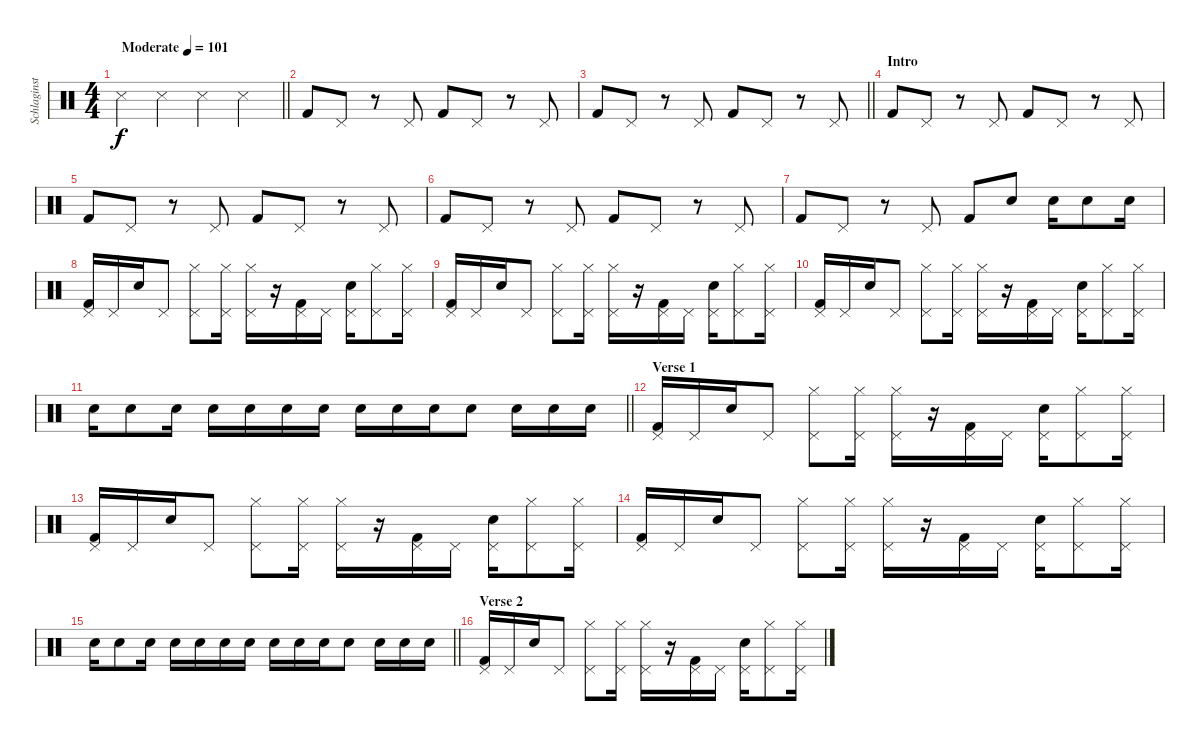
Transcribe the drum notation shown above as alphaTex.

\track ("Schlaginstrumente - Auswahl" "Schlaginst") {instrument percussion}
\staff {score}
\articulation defaults
\ts (4 4)
\tempo (101 "Moderate")
\clef neutral
\barLineRight lightlight
\ks c "Snare (side stick) 3".4{dy f} "Snare (side stick) 3".4 "Snare (side stick) 3".4 "Snare (side stick) 3".4
|
"Kick (hit) 2".8 "Pedal Hi-Hat (hit)".8 r.8 "Pedal Hi-Hat (hit)".8 "Kick (hit) 2".8 "Pedal Hi-Hat (hit)".8 r.8 "Pedal Hi-Hat (hit)".8 |
\barLineRight lightlight "Kick (hit) 2".8 "Pedal Hi-Hat (hit)".8
r.8 "Pedal Hi-Hat (hit)".8 "Kick (hit) 2".8 "Pedal Hi-Hat (hit)".8 r.8 "Pedal Hi-Hat (hit)".8 |
\section ("" "Intro")
"Kick (hit) 2".8 "Pedal Hi-Hat (hit)".8 r.8 "Pedal Hi-Hat (hit)".8 "Kick (hit) 2".8 "Pedal Hi-Hat (hit)".8 r.8 "Pedal Hi-Hat (hit)".8 |
"Kick (hit) 2".8 "Pedal Hi-Hat (hit)".8 r.8 "Pedal Hi-Hat (hit)".8 "Kick (hit) 2".8 "Pedal Hi-Hat (hit)".8 r.8 "Pedal Hi-Hat (hit)".8 |
"Kick (hit) 2".8 "Pedal Hi-Hat (hit)".8 r.8 "Pedal Hi-Hat (hit)".8 "Kick (hit) 2".8 "Pedal Hi-Hat (hit)".8 r.8 "Pedal Hi-Hat (hit)".8 |
"Kick (hit) 2".8 "Pedal Hi-Hat (hit)".8 r.8 "Pedal Hi-Hat (hit)".8 "Kick (hit) 2".8 "Electric Snare (hit)".8 "Electric Snare (hit)".16 "Electric Snare (hit)".8 "Electric Snare (hit)".16 |
("Kick (hit) 2" "Pedal Hi-Hat (hit)").16 "Pedal Hi-Hat (hit)".16 "Electric Snare (hit)".16 "Pedal Hi-Hat (hit)".8 ("Hi-Hat (closed)" "Pedal Hi-Hat (hit)").8 ("Hi-Hat (closed)" "Pedal Hi-Hat (hit)").16 ("Hi-Hat (closed)" "Pedal Hi-Hat (hit)").16 r.16 ("Kick (hit) 2" "Pedal Hi-Hat (hit)").16 "Pedal Hi-Hat (hit)".16 ("Snare (hit) 2" "Pedal Hi-Hat (hit)").16 ("Hi-Hat (closed)" "Pedal Hi-Hat (hit)").8 ("Hi-Hat (closed)" "Pedal Hi-Hat (hit)").16 |
("Kick (hit) 2" "Pedal Hi-Hat (hit)").16 "Pedal Hi-Hat (hit)".16 "Electric Snare (hit)".16 "Pedal Hi-Hat (hit)".8 ("Hi-Hat (closed)" "Pedal Hi-Hat (hit)").8 ("Hi-Hat (closed)" "Pedal Hi-Hat (hit)").16 ("Hi-Hat (closed)" "Pedal Hi-Hat (hit)").16 r.16 ("Kick (hit) 2" "Pedal Hi-Hat (hit)").16 "Pedal Hi-Hat (hit)".16 ("Snare (hit) 2" "Pedal Hi-Hat (hit)").16 ("Hi-Hat (closed)" "Pedal Hi-Hat (hit)").8 ("Hi-Hat (closed)" "Pedal Hi-Hat (hit)").16 |
("Kick (hit) 2" "Pedal Hi-Hat (hit)").16 "Pedal Hi-Hat (hit)".16 "Electric Snare (hit)".16 "Pedal Hi-Hat (hit)".8 ("Hi-Hat (closed)" "Pedal Hi-Hat (hit)").8 ("Hi-Hat (closed)" "Pedal Hi-Hat (hit)").16 ("Hi-Hat (closed)" "Pedal Hi-Hat (hit)").16 r.16 ("Kick (hit) 2" "Pedal Hi-Hat (hit)").16 "Pedal Hi-Hat (hit)".16 ("Snare (hit) 2" "Pedal Hi-Hat (hit)").16 ("Hi-Hat (closed)" "Pedal Hi-Hat (hit)").8 ("Hi-Hat (closed)" "Pedal Hi-Hat (hit)").16 |
\barLineRight lightlight "Electric Snare (hit)".16 "Electric Snare (hit)".8 "Electric Snare (hit)".16 "Electric Snare (hit)".16 "Electric Snare (hit)".16 "Electric Snare (hit)".16 "Electric Snare (hit)".16 "Electric Snare (hit)".16 "Electric Snare (hit)".16 "Electric Snare (hit)".16 "Electric Snare (hit)".8 "Electric Snare (hit)".16 "Electric Snare (hit)".16 "Electric Snare (hit)".16
|
\section ("" "Verse 1")
("Kick (hit) 2" "Pedal Hi-Hat (hit)").16 "Pedal Hi-Hat (hit)".16 "Electric Snare (hit)".16 "Pedal Hi-Hat (hit)".8 ("Hi-Hat (closed)" "Pedal Hi-Hat (hit)").8 ("Hi-Hat (closed)" "Pedal Hi-Hat (hit)").16 ("Hi-Hat (closed)" "Pedal Hi-Hat (hit)").16 r.16 ("Kick (hit) 2" "Pedal Hi-Hat (hit)").16 "Pedal Hi-Hat (hit)".16 ("Snare (hit) 2" "Pedal Hi-Hat (hit)").16 ("Hi-Hat (closed)" "Pedal Hi-Hat (hit)").8 ("Hi-Hat (closed)" "Pedal Hi-Hat (hit)").16 |
("Kick (hit) 2" "Pedal Hi-Hat (hit)").16 "Pedal Hi-Hat (hit)".16 "Electric Snare (hit)".16 "Pedal Hi-Hat (hit)".8 ("Hi-Hat (closed)" "Pedal Hi-Hat (hit)").8 ("Hi-Hat (closed)" "Pedal Hi-Hat (hit)").16 ("Hi-Hat (closed)" "Pedal Hi-Hat (hit)").16 r.16 ("Kick (hit) 2" "Pedal Hi-Hat (hit)").16 "Pedal Hi-Hat (hit)".16 ("Snare (hit) 2" "Pedal Hi-Hat (hit)").16 ("Hi-Hat (closed)" "Pedal Hi-Hat (hit)").8 ("Hi-Hat (closed)" "Pedal Hi-Hat (hit)").16 |
("Kick (hit) 2" "Pedal Hi-Hat (hit)").16 "Pedal Hi-Hat (hit)".16 "Electric Snare (hit)".16 "Pedal Hi-Hat (hit)".8 ("Hi-Hat (closed)" "Pedal Hi-Hat (hit)").8 ("Hi-Hat (closed)" "Pedal Hi-Hat (hit)").16 ("Hi-Hat (closed)" "Pedal Hi-Hat (hit)").16 r.16 ("Kick (hit) 2" "Pedal Hi-Hat (hit)").16 "Pedal Hi-Hat (hit)".16 ("Snare (hit) 2" "Pedal Hi-Hat (hit)").16 ("Hi-Hat (closed)" "Pedal Hi-Hat (hit)").8 ("Hi-Hat (closed)" "Pedal Hi-Hat (hit)").16 |
\barLineRight lightlight "Electric Snare (hit)".16 "Electric Snare (hit)".8 "Electric Snare (hit)".16 "Electric Snare (hit)".16 "Electric Snare (hit)".16 "Electric Snare (hit)".16 "Electric Snare (hit)".16 "Electric Snare (hit)".16 "Electric Snare (hit)".16 "Electric Snare (hit)".16 "Electric Snare (hit)".8 "Electric Snare (hit)".16 "Electric Snare (hit)".16 "Electric Snare (hit)".16
|
\section ("" "Verse 2")
("Kick (hit) 2" "Pedal Hi-Hat (hit)").16 "Pedal Hi-Hat (hit)".16 "Electric Snare (hit)".16 "Pedal Hi-Hat (hit)".8 ("Hi-Hat (closed)" "Pedal Hi-Hat (hit)").8 ("Hi-Hat (closed)" "Pedal Hi-Hat (hit)").16 ("Hi-Hat (closed)" "Pedal Hi-Hat (hit)").16 r.16 ("Kick (hit) 2" "Pedal Hi-Hat (hit)").16 "Pedal Hi-Hat (hit)".16 ("Snare (hit) 2" "Pedal Hi-Hat (hit)").16 ("Hi-Hat (closed)" "Pedal Hi-Hat (hit)").8 ("Hi-Hat (closed)" "Pedal Hi-Hat (hit)").16
